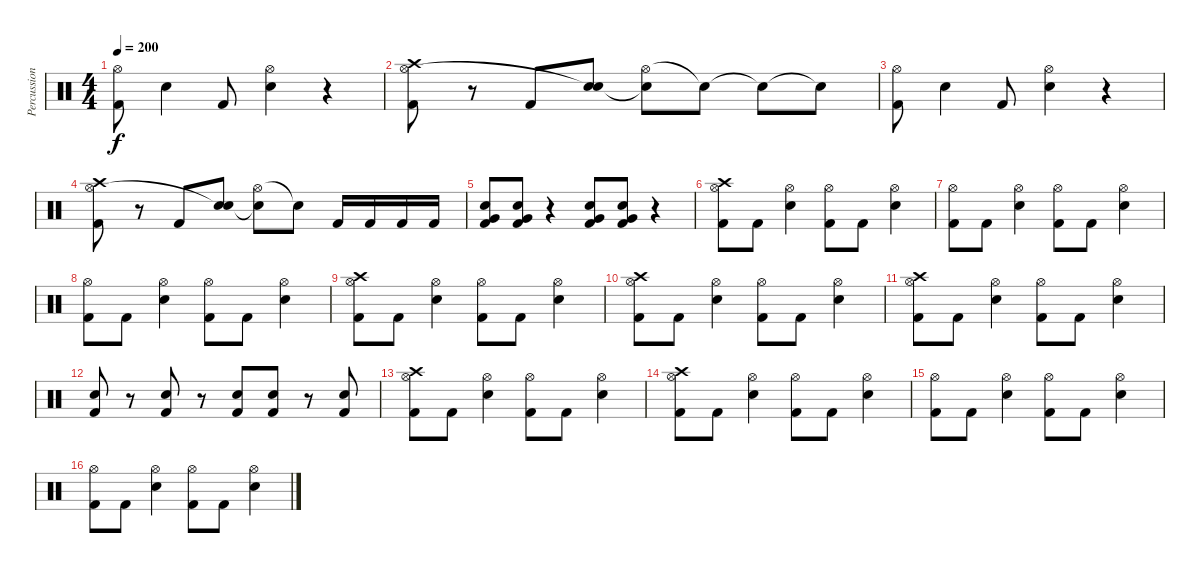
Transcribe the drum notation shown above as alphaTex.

\track ("Percussion" "Percussion") {instrument percussion}
\staff {score}
\articulation defaults
\ts (4 4)
\tempo 200
\clef neutral
\ks c
("Hi-Hat (open)" "Kick (hit) 2").8{dy f} "Electric Snare (hit)".4 "Kick (hit) 2".8 ("Hi-Hat (open)" "Electric Snare (hit)").4 r.4 |
("Crash high (hit)" "Hi-Hat (open)" "Kick (hit) 2").8 r.8 "Kick (hit) 2".8 ("Electric Snare (hit)" "Electric Snare (hit)"{t}).8 ("Hi-Hat (open)" "Snare (hit)"{t}).8 "Snare (hit)"{t}.8 "Snare (hit)"{t}.8 "Snare (hit)"{t}.8 |
("Hi-Hat (open)" "Kick (hit) 2").8 "Electric Snare (hit)".4 "Kick (hit) 2".8 ("Hi-Hat (open)" "Electric Snare (hit)").4 r.4 |
("Crash high (hit)" "Hi-Hat (open)" "Kick (hit) 2").8 r.8 "Kick (hit) 2".8 ("Electric Snare (hit)" "Electric Snare (hit)"{t}).8 ("Hi-Hat (open)" "Snare (hit)"{t}).8 "Snare (hit)"{t}.8 "Kick (hit) 2".16 "Kick (hit) 2".16 "Kick (hit) 2".16 "Kick (hit) 2".16 |
("Very Low Tom (hit)" "Electric Snare (hit)" "Kick (hit) 2").8 ("Very Low Tom (hit)" "Electric Snare (hit)" "Kick (hit) 2").8 r.4 ("Very Low Tom (hit)" "Electric Snare (hit)" "Kick (hit) 2").8 ("Very Low Tom (hit)" "Electric Snare (hit)" "Kick (hit) 2").8 r.4 |
("Hi-Hat (open)" "Crash high (hit)" "Kick (hit) 2").8 "Kick (hit) 2".8 ("Hi-Hat (open)" "Electric Snare (hit)").4 ("Hi-Hat (open)" "Kick (hit) 2").8 "Kick (hit) 2".8 ("Hi-Hat (open)" "Electric Snare (hit)").4 |
("Hi-Hat (open)" "Kick (hit) 2").8 "Kick (hit) 2".8 ("Hi-Hat (open)" "Electric Snare (hit)").4 ("Hi-Hat (open)" "Kick (hit) 2").8 "Kick (hit) 2".8 ("Hi-Hat (open)" "Electric Snare (hit)").4 |
("Hi-Hat (open)" "Kick (hit) 2").8 "Kick (hit) 2".8 ("Hi-Hat (open)" "Electric Snare (hit)").4 ("Hi-Hat (open)" "Kick (hit) 2").8 "Kick (hit) 2".8 ("Hi-Hat (open)" "Electric Snare (hit)").4 |
("Hi-Hat (open)" "Crash high (hit)" "Kick (hit) 2").8 "Kick (hit) 2".8 ("Hi-Hat (open)" "Electric Snare (hit)").4 ("Hi-Hat (open)" "Kick (hit) 2").8 "Kick (hit) 2".8 ("Hi-Hat (open)" "Electric Snare (hit)").4 |
("Hi-Hat (open)" "Crash high (hit)" "Kick (hit) 2").8 "Kick (hit) 2".8 ("Hi-Hat (open)" "Electric Snare (hit)").4 ("Hi-Hat (open)" "Kick (hit) 2").8 "Kick (hit) 2".8 ("Hi-Hat (open)" "Electric Snare (hit)").4 |
("Hi-Hat (open)" "Crash high (hit)" "Kick (hit) 2").8 "Kick (hit) 2".8 ("Hi-Hat (open)" "Electric Snare (hit)").4 ("Hi-Hat (open)" "Kick (hit) 2").8 "Kick (hit) 2".8 ("Hi-Hat (open)" "Electric Snare (hit)").4 |
("Electric Snare (hit)" "Kick (hit) 2").8 r.8 ("Electric Snare (hit)" "Kick (hit) 2").8 r.8 ("Electric Snare (hit)" "Kick (hit) 2").8 ("Electric Snare (hit)" "Kick (hit) 2").8 r.8 ("Electric Snare (hit)" "Kick (hit) 2").8 |
("Hi-Hat (open)" "Crash high (hit)" "Kick (hit) 2").8 "Kick (hit) 2".8 ("Hi-Hat (open)" "Electric Snare (hit)").4 ("Hi-Hat (open)" "Kick (hit) 2").8 "Kick (hit) 2".8 ("Hi-Hat (open)" "Electric Snare (hit)").4 |
("Hi-Hat (open)" "Crash high (hit)" "Kick (hit) 2").8 "Kick (hit) 2".8 ("Hi-Hat (open)" "Electric Snare (hit)").4 ("Hi-Hat (open)" "Kick (hit) 2").8 "Kick (hit) 2".8 ("Hi-Hat (open)" "Electric Snare (hit)").4 |
("Hi-Hat (open)" "Kick (hit) 2").8 "Kick (hit) 2".8 ("Hi-Hat (open)" "Electric Snare (hit)").4 ("Hi-Hat (open)" "Kick (hit) 2").8 "Kick (hit) 2".8 ("Hi-Hat (open)" "Electric Snare (hit)").4 |
("Hi-Hat (open)" "Kick (hit) 2").8 "Kick (hit) 2".8 ("Hi-Hat (open)" "Electric Snare (hit)").4 ("Hi-Hat (open)" "Kick (hit) 2").8 "Kick (hit) 2".8 ("Hi-Hat (open)" "Electric Snare (hit)").4
